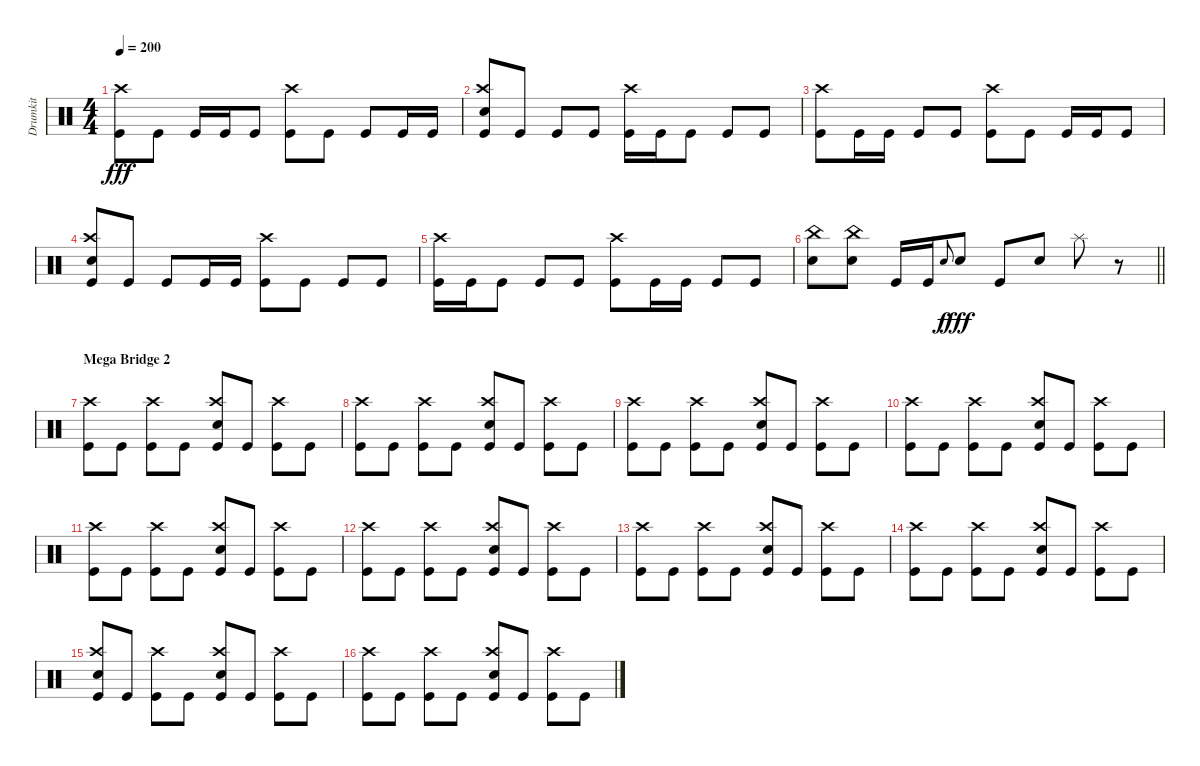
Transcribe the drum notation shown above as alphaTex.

\track ("Drumkit" "Drumkit") {instrument percussion}
\staff {score}
\articulation defaults
\ts (4 4)
\tempo 200
\clef neutral
\ks c
("Kick (hit)" "Crash high (hit)").8{dy fff} "Kick (hit)".8 "Kick (hit)".16 "Kick (hit)".16 "Kick (hit)".8 ("Kick (hit)" "Crash high (hit)").8 "Kick (hit)".8 "Kick (hit)".8 "Kick (hit)".16 "Kick (hit)".16 |
("Kick (hit)" "Crash high (hit)" "Snare (hit) 2").8 "Kick (hit)".8 "Kick (hit)".8 "Kick (hit)".8 ("Kick (hit)" "Crash high (hit)").16 "Kick (hit)".16 "Kick (hit)".8 "Kick (hit)".8 "Kick (hit)".8 |
("Kick (hit)" "Crash high (hit)").8 "Kick (hit)".16 "Kick (hit)".16 "Kick (hit)".8 "Kick (hit)".8 ("Kick (hit)" "Crash high (hit)").8 "Kick (hit)".8 "Kick (hit)".16 "Kick (hit)".16 "Kick (hit)".8 |
("Kick (hit)" "Crash high (hit)" "Snare (hit) 2").8 "Kick (hit)".8 "Kick (hit)".8 "Kick (hit)".16 "Kick (hit)".16 ("Kick (hit)" "Crash high (hit)").8 "Kick (hit)".8 "Kick (hit)".8 "Kick (hit)".8 |
("Kick (hit)" "Crash high (hit)").16 "Kick (hit)".16 "Kick (hit)".8 "Kick (hit)".8 "Kick (hit)".8 ("Kick (hit)" "Crash high (hit)").8 "Kick (hit)".16 "Kick (hit)".16 "Kick (hit)".8 "Kick (hit)".8 |
\barLineRight lightlight
("China (hit)" "Snare (hit) 2").8 ("China (hit)" "Snare (hit) 2").8 "Kick (hit)".16 "Kick (hit)".16 "Snare (hit)".8{gr onbeat dy f} "Snare (hit) 2".8{dy fff} "Kick (hit)".8 "Snare (hit) 2".8 "Splash (hit)".8 r.8 |
\section ("" "Mega Bridge 2")
("Kick (hit)" "Crash high (hit)").8 "Kick (hit)".8 ("Crash high (hit)" "Kick (hit)").8 "Kick (hit)".8 ("Snare (hit) 2" "Kick (hit)" "Crash high (hit)").8 "Kick (hit)".8 ("Crash high (hit)" "Kick (hit)").8 "Kick (hit)".8 |
("Kick (hit)" "Crash high (hit)").8 "Kick (hit)".8 ("Crash high (hit)" "Kick (hit)").8 "Kick (hit)".8 ("Snare (hit) 2" "Kick (hit)" "Crash high (hit)").8 "Kick (hit)".8 ("Crash high (hit)" "Kick (hit)").8 "Kick (hit)".8 |
("Kick (hit)" "Crash high (hit)").8 "Kick (hit)".8 ("Crash high (hit)" "Kick (hit)").8 "Kick (hit)".8 ("Snare (hit) 2" "Kick (hit)" "Crash high (hit)").8 "Kick (hit)".8 ("Crash high (hit)" "Kick (hit)").8 "Kick (hit)".8 |
("Kick (hit)" "Crash high (hit)").8 "Kick (hit)".8 ("Crash high (hit)" "Kick (hit)").8 "Kick (hit)".8 ("Snare (hit) 2" "Kick (hit)" "Crash high (hit)").8 "Kick (hit)".8 ("Crash high (hit)" "Kick (hit)").8 "Kick (hit)".8 |
("Kick (hit)" "Crash high (hit)").8 "Kick (hit)".8 ("Crash high (hit)" "Kick (hit)").8 "Kick (hit)".8 ("Snare (hit) 2" "Kick (hit)" "Crash high (hit)").8 "Kick (hit)".8 ("Crash high (hit)" "Kick (hit)").8 "Kick (hit)".8 |
("Kick (hit)" "Crash high (hit)").8 "Kick (hit)".8 ("Crash high (hit)" "Kick (hit)").8 "Kick (hit)".8 ("Snare (hit) 2" "Kick (hit)" "Crash high (hit)").8 "Kick (hit)".8 ("Crash high (hit)" "Kick (hit)").8 "Kick (hit)".8 |
("Kick (hit)" "Crash high (hit)").8 "Kick (hit)".8 ("Crash high (hit)" "Kick (hit)").8 "Kick (hit)".8 ("Snare (hit) 2" "Kick (hit)" "Crash high (hit)").8 "Kick (hit)".8 ("Crash high (hit)" "Kick (hit)").8 "Kick (hit)".8 |
("Kick (hit)" "Crash high (hit)").8 "Kick (hit)".8 ("Crash high (hit)" "Kick (hit)").8 "Kick (hit)".8 ("Snare (hit) 2" "Kick (hit)" "Crash high (hit)").8 "Kick (hit)".8 ("Crash high (hit)" "Kick (hit)").8 "Kick (hit)".8 |
("Snare (hit) 2" "Kick (hit)" "Crash high (hit)").8 "Kick (hit)".8 ("Crash high (hit)" "Kick (hit)").8 "Kick (hit)".8 ("Snare (hit) 2" "Kick (hit)" "Crash high (hit)").8 "Kick (hit)".8 ("Crash high (hit)" "Kick (hit)").8 "Kick (hit)".8 |
("Kick (hit)" "Crash high (hit)").8 "Kick (hit)".8 ("Crash high (hit)" "Kick (hit)").8 "Kick (hit)".8 ("Snare (hit) 2" "Kick (hit)" "Crash high (hit)").8 "Kick (hit)".8 ("Crash high (hit)" "Kick (hit)").8 "Kick (hit)".8
